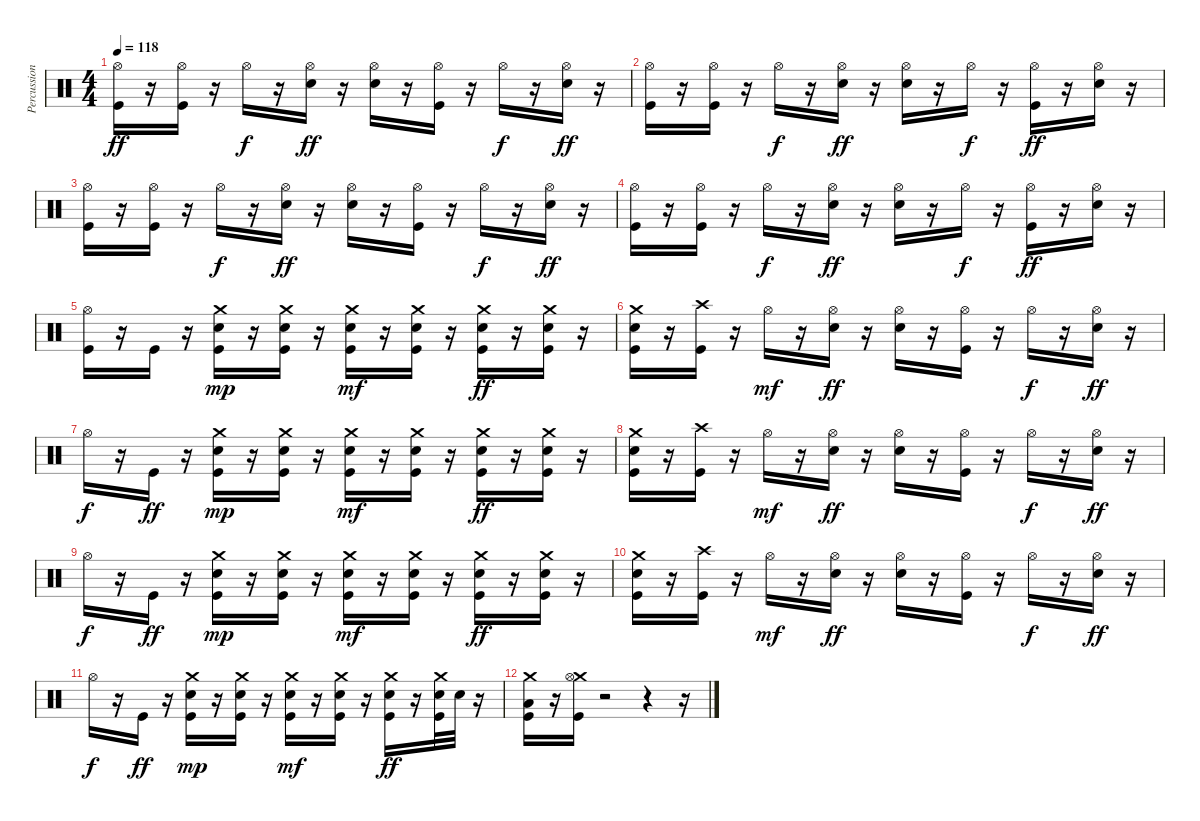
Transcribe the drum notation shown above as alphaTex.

\track ("Percussion" "Percussion") {instrument percussion}
\staff {score}
\articulation defaults
\ts (4 4)
\tempo 118
\clef neutral
\ks c
("Hi-Hat (open)" "Kick (hit)").16{dy ff} r.16 ("Kick (hit)" "Hi-Hat (open)").16 r.16 "Hi-Hat (open)".16{dy f} r.16 ("Hi-Hat (open)" "Snare (hit) 2").16{dy ff} r.16 ("Hi-Hat (open)" "Snare (hit) 2").16 r.16 ("Hi-Hat (open)" "Kick (hit)").16 r.16 "Hi-Hat (open)".16{dy f} r.16 ("Hi-Hat (open)" "Snare (hit) 2").16{dy ff} r.16 |
("Hi-Hat (open)" "Kick (hit)").16 r.16 ("Kick (hit)" "Hi-Hat (open)").16 r.16 "Hi-Hat (open)".16{dy f} r.16 ("Hi-Hat (open)" "Snare (hit) 2").16{dy ff} r.16 ("Hi-Hat (open)" "Snare (hit) 2").16 r.16 "Hi-Hat (open)".16{dy f} r.16 ("Hi-Hat (open)" "Kick (hit)").16{dy ff} r.16 ("Hi-Hat (open)" "Snare (hit) 2").16 r.16 |
("Hi-Hat (open)" "Kick (hit)").16 r.16 ("Kick (hit)" "Hi-Hat (open)").16 r.16 "Hi-Hat (open)".16{dy f} r.16 ("Hi-Hat (open)" "Snare (hit) 2").16{dy ff} r.16 ("Hi-Hat (open)" "Snare (hit) 2").16 r.16 ("Hi-Hat (open)" "Kick (hit)").16 r.16 "Hi-Hat (open)".16{dy f} r.16 ("Hi-Hat (open)" "Snare (hit) 2").16{dy ff} r.16 |
("Hi-Hat (open)" "Kick (hit)").16 r.16 ("Kick (hit)" "Hi-Hat (open)").16 r.16 "Hi-Hat (open)".16{dy f} r.16 ("Hi-Hat (open)" "Snare (hit) 2").16{dy ff} r.16 ("Hi-Hat (open)" "Snare (hit) 2").16 r.16 "Hi-Hat (open)".16{dy f} r.16 ("Hi-Hat (open)" "Kick (hit)").16{dy ff} r.16 ("Hi-Hat (open)" "Snare (hit) 2").16 r.16 |
("Hi-Hat (open)" "Kick (hit)").16 r.16 "Kick (hit)".16 r.16 ("Electric Snare (hit)" "Kick (hit)" "Crash medium (hit)").16{dy mp} r.16 ("Electric Snare (hit)" "Kick (hit)" "Crash medium (hit)").16 r.16 ("Electric Snare (hit)" "Kick (hit)" "Crash medium (hit)").16{dy mf} r.16 ("Electric Snare (hit)" "Kick (hit)" "Crash medium (hit)").16 r.16 ("Electric Snare (hit)" "Kick (hit)" "Crash medium (hit)").16{dy ff} r.16 ("Electric Snare (hit)" "Kick (hit)" "Crash medium (hit)").16 r.16 |
("Electric Snare (hit)" "Kick (hit)" "Crash medium (hit)").16 r.16 ("Kick (hit)" "Crash high (hit)").16 r.16 "Hi-Hat (open)".16{dy mf} r.16 ("Hi-Hat (open)" "Snare (hit) 2").16{dy ff} r.16 ("Hi-Hat (open)" "Snare (hit) 2").16 r.16 ("Hi-Hat (open)" "Kick (hit)").16 r.16 "Hi-Hat (open)".16{dy f} r.16 ("Hi-Hat (open)" "Snare (hit) 2").16{dy ff} r.16 |
"Hi-Hat (open)".16{dy f} r.16 "Kick (hit)".16{dy ff} r.16 ("Electric Snare (hit)" "Kick (hit)" "Crash medium (hit)").16{dy mp} r.16 ("Electric Snare (hit)" "Kick (hit)" "Crash medium (hit)").16 r.16 ("Electric Snare (hit)" "Kick (hit)" "Crash medium (hit)").16{dy mf} r.16 ("Electric Snare (hit)" "Kick (hit)" "Crash medium (hit)").16 r.16 ("Electric Snare (hit)" "Kick (hit)" "Crash medium (hit)").16{dy ff} r.16 ("Electric Snare (hit)" "Kick (hit)" "Crash medium (hit)").16 r.16 |
("Electric Snare (hit)" "Kick (hit)" "Crash medium (hit)").16 r.16 ("Kick (hit)" "Crash high (hit)").16 r.16 "Hi-Hat (open)".16{dy mf} r.16 ("Hi-Hat (open)" "Snare (hit) 2").16{dy ff} r.16 ("Hi-Hat (open)" "Snare (hit) 2").16 r.16 ("Hi-Hat (open)" "Kick (hit)").16 r.16 "Hi-Hat (open)".16{dy f} r.16 ("Hi-Hat (open)" "Snare (hit) 2").16{dy ff} r.16 |
"Hi-Hat (open)".16{dy f} r.16 "Kick (hit)".16{dy ff} r.16 ("Electric Snare (hit)" "Kick (hit)" "Crash medium (hit)").16{dy mp} r.16 ("Electric Snare (hit)" "Kick (hit)" "Crash medium (hit)").16 r.16 ("Electric Snare (hit)" "Kick (hit)" "Crash medium (hit)").16{dy mf} r.16 ("Electric Snare (hit)" "Kick (hit)" "Crash medium (hit)").16 r.16 ("Electric Snare (hit)" "Kick (hit)" "Crash medium (hit)").16{dy ff} r.16 ("Electric Snare (hit)" "Kick (hit)" "Crash medium (hit)").16 r.16 |
("Electric Snare (hit)" "Kick (hit)" "Crash medium (hit)").16 r.16 ("Kick (hit)" "Crash high (hit)").16 r.16 "Hi-Hat (open)".16{dy mf} r.16 ("Hi-Hat (open)" "Snare (hit) 2").16{dy ff} r.16 ("Hi-Hat (open)" "Snare (hit) 2").16 r.16 ("Hi-Hat (open)" "Kick (hit)").16 r.16 "Hi-Hat (open)".16{dy f} r.16 ("Hi-Hat (open)" "Snare (hit) 2").16{dy ff} r.16 |
"Hi-Hat (open)".16{dy f} r.16 "Kick (hit)".16{dy ff} r.16 ("Electric Snare (hit)" "Kick (hit)" "Crash medium (hit)").16{dy mp} r.16 ("Electric Snare (hit)" "Kick (hit)" "Crash medium (hit)").16 r.16 ("Electric Snare (hit)" "Kick (hit)" "Crash medium (hit)").16{dy mf} r.16 ("Electric Snare (hit)" "Kick (hit)" "Crash medium (hit)").16 r.16 ("Electric Snare (hit)" "Kick (hit)" "Crash medium (hit)").16{dy ff} r.16 ("Kick (hit)" "Crash medium (hit)" "Electric Snare (hit)").32 "Snare (hit) 2".32 r.16 |
("Kick (hit)" "Crash medium (hit)" "Low Floor Tom (hit)").16 r.16 ("Kick (hit)" "Crash medium (hit)" "Hi-Hat (open)").16 r.2 r.4 r.16
